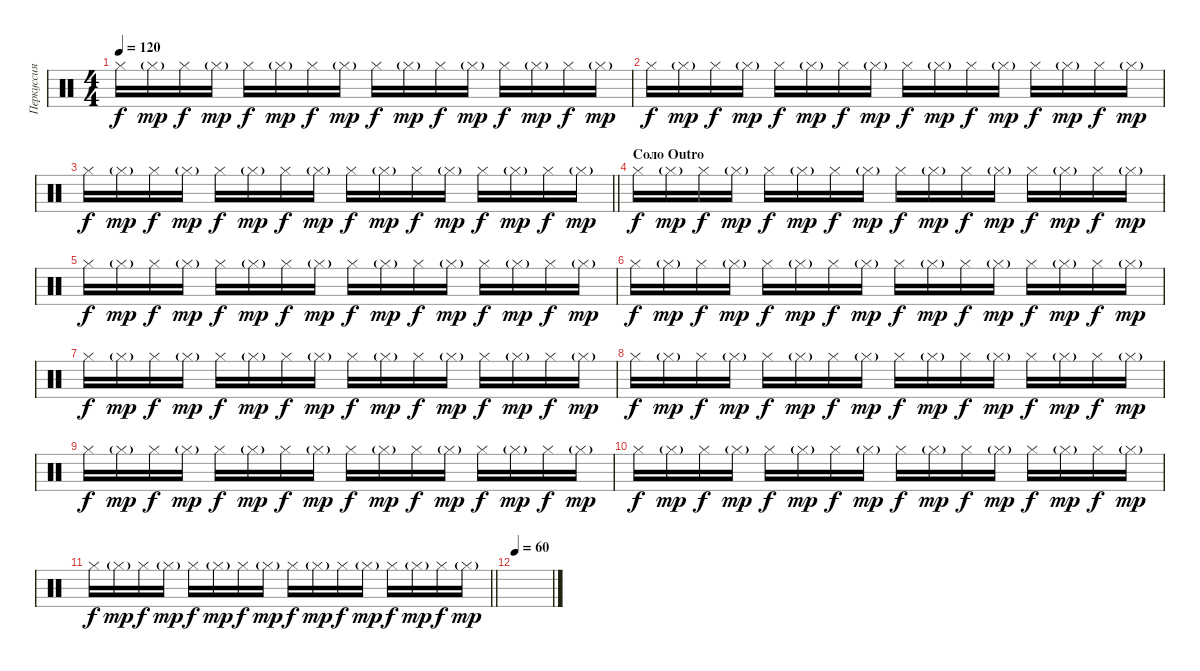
\track ("Перкуссия" "Перкуссия") {instrument percussion}
\staff {score}
\articulation defaults
\ts (4 4)
\tempo 120
\clef neutral
\ks c "Hi-Hat (closed)".16{dy f} "Hi-Hat (closed)"{g}.16{dy mp} "Hi-Hat (closed)".16{dy f} "Hi-Hat (closed)"{g}.16{dy mp} "Hi-Hat (closed)".16{dy f} "Hi-Hat (closed)"{g}.16{dy mp} "Hi-Hat (closed)".16{dy f} "Hi-Hat (closed)"{g}.16{dy mp} "Hi-Hat (closed)".16{dy f} "Hi-Hat (closed)"{g}.16{dy mp} "Hi-Hat (closed)".16{dy f} "Hi-Hat (closed)"{g}.16{dy mp} "Hi-Hat (closed)".16{dy f} "Hi-Hat (closed)"{g}.16{dy mp} "Hi-Hat (closed)".16{dy f} "Hi-Hat (closed)"{g}.16{dy mp}
|
"Hi-Hat (closed)".16{dy f} "Hi-Hat (closed)"{g}.16{dy mp} "Hi-Hat (closed)".16{dy f} "Hi-Hat (closed)"{g}.16{dy mp} "Hi-Hat (closed)".16{dy f} "Hi-Hat (closed)"{g}.16{dy mp} "Hi-Hat (closed)".16{dy f} "Hi-Hat (closed)"{g}.16{dy mp} "Hi-Hat (closed)".16{dy f} "Hi-Hat (closed)"{g}.16{dy mp} "Hi-Hat (closed)".16{dy f} "Hi-Hat (closed)"{g}.16{dy mp} "Hi-Hat (closed)".16{dy f} "Hi-Hat (closed)"{g}.16{dy mp} "Hi-Hat (closed)".16{dy f} "Hi-Hat (closed)"{g}.16{dy mp} |
\barLineRight lightlight "Hi-Hat (closed)".16{dy f} "Hi-Hat (closed)"{g}.16{dy mp} "Hi-Hat (closed)".16{dy f} "Hi-Hat (closed)"{g}.16{dy mp} "Hi-Hat (closed)".16{dy f} "Hi-Hat (closed)"{g}.16{dy mp} "Hi-Hat (closed)".16{dy f} "Hi-Hat (closed)"{g}.16{dy mp} "Hi-Hat (closed)".16{dy f} "Hi-Hat (closed)"{g}.16{dy mp} "Hi-Hat (closed)".16{dy f} "Hi-Hat (closed)"{g}.16{dy mp} "Hi-Hat (closed)".16{dy f} "Hi-Hat (closed)"{g}.16{dy mp} "Hi-Hat (closed)".16{dy f} "Hi-Hat (closed)"{g}.16{dy mp}
|
\section ("" "Соло Outro")
"Hi-Hat (closed)".16{dy f} "Hi-Hat (closed)"{g}.16{dy mp} "Hi-Hat (closed)".16{dy f} "Hi-Hat (closed)"{g}.16{dy mp} "Hi-Hat (closed)".16{dy f} "Hi-Hat (closed)"{g}.16{dy mp} "Hi-Hat (closed)".16{dy f} "Hi-Hat (closed)"{g}.16{dy mp} "Hi-Hat (closed)".16{dy f} "Hi-Hat (closed)"{g}.16{dy mp} "Hi-Hat (closed)".16{dy f} "Hi-Hat (closed)"{g}.16{dy mp} "Hi-Hat (closed)".16{dy f} "Hi-Hat (closed)"{g}.16{dy mp} "Hi-Hat (closed)".16{dy f} "Hi-Hat (closed)"{g}.16{dy mp} |
"Hi-Hat (closed)".16{dy f} "Hi-Hat (closed)"{g}.16{dy mp} "Hi-Hat (closed)".16{dy f} "Hi-Hat (closed)"{g}.16{dy mp} "Hi-Hat (closed)".16{dy f} "Hi-Hat (closed)"{g}.16{dy mp} "Hi-Hat (closed)".16{dy f} "Hi-Hat (closed)"{g}.16{dy mp} "Hi-Hat (closed)".16{dy f} "Hi-Hat (closed)"{g}.16{dy mp} "Hi-Hat (closed)".16{dy f} "Hi-Hat (closed)"{g}.16{dy mp} "Hi-Hat (closed)".16{dy f} "Hi-Hat (closed)"{g}.16{dy mp} "Hi-Hat (closed)".16{dy f} "Hi-Hat (closed)"{g}.16{dy mp} |
"Hi-Hat (closed)".16{dy f} "Hi-Hat (closed)"{g}.16{dy mp} "Hi-Hat (closed)".16{dy f} "Hi-Hat (closed)"{g}.16{dy mp} "Hi-Hat (closed)".16{dy f} "Hi-Hat (closed)"{g}.16{dy mp} "Hi-Hat (closed)".16{dy f} "Hi-Hat (closed)"{g}.16{dy mp} "Hi-Hat (closed)".16{dy f} "Hi-Hat (closed)"{g}.16{dy mp} "Hi-Hat (closed)".16{dy f} "Hi-Hat (closed)"{g}.16{dy mp} "Hi-Hat (closed)".16{dy f} "Hi-Hat (closed)"{g}.16{dy mp} "Hi-Hat (closed)".16{dy f} "Hi-Hat (closed)"{g}.16{dy mp} |
"Hi-Hat (closed)".16{dy f} "Hi-Hat (closed)"{g}.16{dy mp} "Hi-Hat (closed)".16{dy f} "Hi-Hat (closed)"{g}.16{dy mp} "Hi-Hat (closed)".16{dy f} "Hi-Hat (closed)"{g}.16{dy mp} "Hi-Hat (closed)".16{dy f} "Hi-Hat (closed)"{g}.16{dy mp} "Hi-Hat (closed)".16{dy f} "Hi-Hat (closed)"{g}.16{dy mp} "Hi-Hat (closed)".16{dy f} "Hi-Hat (closed)"{g}.16{dy mp} "Hi-Hat (closed)".16{dy f} "Hi-Hat (closed)"{g}.16{dy mp} "Hi-Hat (closed)".16{dy f} "Hi-Hat (closed)"{g}.16{dy mp} |
"Hi-Hat (closed)".16{dy f} "Hi-Hat (closed)"{g}.16{dy mp} "Hi-Hat (closed)".16{dy f} "Hi-Hat (closed)"{g}.16{dy mp} "Hi-Hat (closed)".16{dy f} "Hi-Hat (closed)"{g}.16{dy mp} "Hi-Hat (closed)".16{dy f} "Hi-Hat (closed)"{g}.16{dy mp} "Hi-Hat (closed)".16{dy f} "Hi-Hat (closed)"{g}.16{dy mp} "Hi-Hat (closed)".16{dy f} "Hi-Hat (closed)"{g}.16{dy mp} "Hi-Hat (closed)".16{dy f} "Hi-Hat (closed)"{g}.16{dy mp} "Hi-Hat (closed)".16{dy f} "Hi-Hat (closed)"{g}.16{dy mp} |
"Hi-Hat (closed)".16{dy f} "Hi-Hat (closed)"{g}.16{dy mp} "Hi-Hat (closed)".16{dy f} "Hi-Hat (closed)"{g}.16{dy mp} "Hi-Hat (closed)".16{dy f} "Hi-Hat (closed)"{g}.16{dy mp} "Hi-Hat (closed)".16{dy f} "Hi-Hat (closed)"{g}.16{dy mp} "Hi-Hat (closed)".16{dy f} "Hi-Hat (closed)"{g}.16{dy mp} "Hi-Hat (closed)".16{dy f} "Hi-Hat (closed)"{g}.16{dy mp} "Hi-Hat (closed)".16{dy f} "Hi-Hat (closed)"{g}.16{dy mp} "Hi-Hat (closed)".16{dy f} "Hi-Hat (closed)"{g}.16{dy mp} |
"Hi-Hat (closed)".16{dy f} "Hi-Hat (closed)"{g}.16{dy mp} "Hi-Hat (closed)".16{dy f} "Hi-Hat (closed)"{g}.16{dy mp} "Hi-Hat (closed)".16{dy f} "Hi-Hat (closed)"{g}.16{dy mp} "Hi-Hat (closed)".16{dy f} "Hi-Hat (closed)"{g}.16{dy mp} "Hi-Hat (closed)".16{dy f} "Hi-Hat (closed)"{g}.16{dy mp} "Hi-Hat (closed)".16{dy f} "Hi-Hat (closed)"{g}.16{dy mp} "Hi-Hat (closed)".16{dy f} "Hi-Hat (closed)"{g}.16{dy mp} "Hi-Hat (closed)".16{dy f} "Hi-Hat (closed)"{g}.16{dy mp} |
\barLineRight lightlight "Hi-Hat (closed)".16{dy f} "Hi-Hat (closed)"{g}.16{dy mp} "Hi-Hat (closed)".16{dy f} "Hi-Hat (closed)"{g}.16{dy mp} "Hi-Hat (closed)".16{dy f} "Hi-Hat (closed)"{g}.16{dy mp} "Hi-Hat (closed)".16{dy f} "Hi-Hat (closed)"{g}.16{dy mp} "Hi-Hat (closed)".16{dy f} "Hi-Hat (closed)"{g}.16{dy mp} "Hi-Hat (closed)".16{dy f} "Hi-Hat (closed)"{g}.16{dy mp} "Hi-Hat (closed)".16{dy f} "Hi-Hat (closed)"{g}.16{dy mp} "Hi-Hat (closed)".16{dy f} "Hi-Hat (closed)"{g}.16{dy mp}
|
\tempo 60
